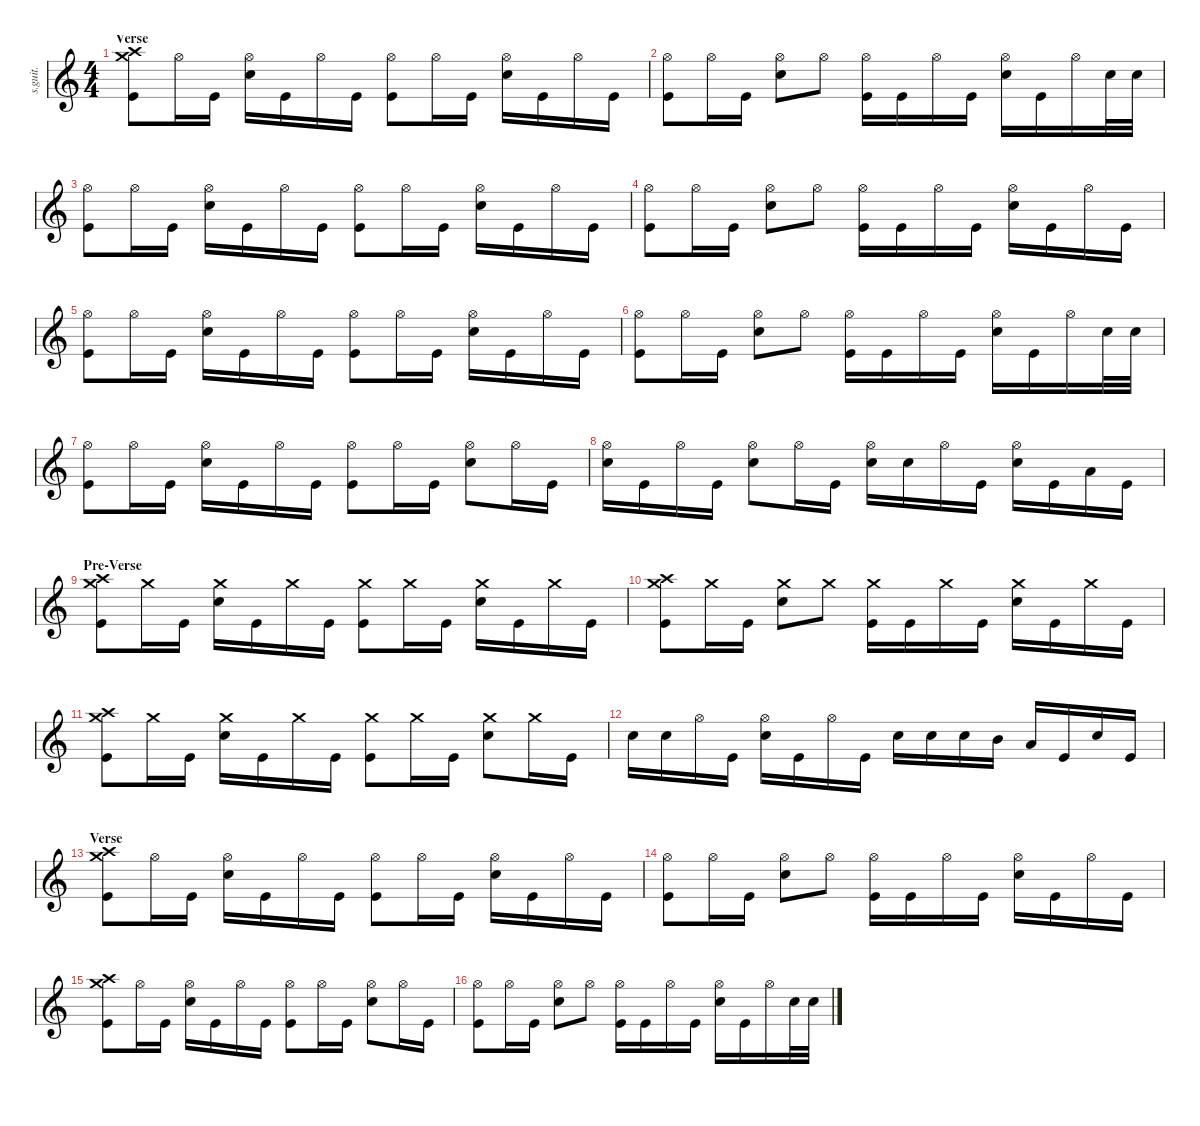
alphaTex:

\defaultSystemsLayout 4
\hideDynamics
\bracketExtendMode nobrackets
\track ("Abe Cunningham" "s.guit.") {instrument percussion}
\staff {score}
\articulation defaults
\ts (4 4)
\section ("" "Verse")
\tempo (93 hide)
\clef g2
\ks c
("Crash high (hit)" "Kick (hit)" "Crash medium (hit)").8{lyrics (0 "") lyrics (1 "") lyrics (2 "") lyrics (3 "") lyrics (4 "") dy fff} "Hi-Hat (open)".16{lyrics (0 "") lyrics (1 "") lyrics (2 "") lyrics (3 "") lyrics (4 "")} "Kick (hit)".16{lyrics (0 "") lyrics (1 "") lyrics (2 "") lyrics (3 "") lyrics (4 "")} ("Snare (hit) 2" "Hi-Hat (open)").16{lyrics (0 "") lyrics (1 "") lyrics (2 "") lyrics (3 "") lyrics (4 "")} "Kick (hit)".16{lyrics (0 "") lyrics (1 "") lyrics (2 "") lyrics (3 "") lyrics (4 "")} "Hi-Hat (open)".16{lyrics (0 "") lyrics (1 "") lyrics (2 "") lyrics (3 "") lyrics (4 "")} "Kick (hit)".16{lyrics (0 "") lyrics (1 "") lyrics (2 "") lyrics (3 "") lyrics (4 "")} ("Hi-Hat (open)" "Kick (hit)").8{lyrics (0 "") lyrics (1 "") lyrics (2 "") lyrics (3 "") lyrics (4 "")} "Hi-Hat (open)".16{lyrics (0 "") lyrics (1 "") lyrics (2 "") lyrics (3 "") lyrics (4 "")} "Kick (hit)".16{lyrics (0 "") lyrics (1 "") lyrics (2 "") lyrics (3 "") lyrics (4 "")} ("Hi-Hat (open)" "Snare (hit) 2").16{lyrics (0 "") lyrics (1 "") lyrics (2 "") lyrics (3 "") lyrics (4 "")} "Kick (hit)".16{lyrics (0 "") lyrics (1 "") lyrics (2 "") lyrics (3 "") lyrics (4 "")} "Hi-Hat (open)".16{lyrics (0 "") lyrics (1 "") lyrics (2 "") lyrics (3 "") lyrics (4 "")} "Kick (hit)".16{lyrics (0 "") lyrics (1 "") lyrics (2 "") lyrics (3 "") lyrics (4 "")} |
("Kick (hit)" "Hi-Hat (open)").8{lyrics (0 "") lyrics (1 "") lyrics (2 "") lyrics (3 "") lyrics (4 "")} "Hi-Hat (open)".16{lyrics (0 "") lyrics (1 "") lyrics (2 "") lyrics (3 "") lyrics (4 "")} "Kick (hit)".16{lyrics (0 "") lyrics (1 "") lyrics (2 "") lyrics (3 "") lyrics (4 "")} ("Snare (hit) 2" "Hi-Hat (open)").8{lyrics (0 "") lyrics (1 "") lyrics (2 "") lyrics (3 "") lyrics (4 "")} "Hi-Hat (open)".8{lyrics (0 "") lyrics (1 "") lyrics (2 "") lyrics (3 "") lyrics (4 "")} ("Hi-Hat (open)" "Kick (hit)").16{lyrics (0 "") lyrics (1 "") lyrics (2 "") lyrics (3 "") lyrics (4 "")} "Kick (hit)".16{lyrics (0 "") lyrics (1 "") lyrics (2 "") lyrics (3 "") lyrics (4 "")} "Hi-Hat (open)".16{lyrics (0 "") lyrics (1 "") lyrics (2 "") lyrics (3 "") lyrics (4 "")} "Kick (hit)".16{lyrics (0 "") lyrics (1 "") lyrics (2 "") lyrics (3 "") lyrics (4 "")} ("Hi-Hat (open)" "Snare (hit) 2").16{lyrics (0 "") lyrics (1 "") lyrics (2 "") lyrics (3 "") lyrics (4 "")} "Kick (hit)".16{lyrics (0 "") lyrics (1 "") lyrics (2 "") lyrics (3 "") lyrics (4 "")} "Hi-Hat (open)".16{lyrics (0 "") lyrics (1 "") lyrics (2 "") lyrics (3 "") lyrics (4 "")} "Snare (hit) 2".32{lyrics (0 "") lyrics (1 "") lyrics (2 "") lyrics (3 "") lyrics (4 "")} "Snare (hit) 2".32{lyrics (0 "") lyrics (1 "") lyrics (2 "") lyrics (3 "") lyrics (4 "")} |
("Kick (hit)" "Hi-Hat (open)").8{lyrics (0 "") lyrics (1 "") lyrics (2 "") lyrics (3 "") lyrics (4 "")} "Hi-Hat (open)".16{lyrics (0 "") lyrics (1 "") lyrics (2 "") lyrics (3 "") lyrics (4 "")} "Kick (hit)".16{lyrics (0 "") lyrics (1 "") lyrics (2 "") lyrics (3 "") lyrics (4 "")} ("Snare (hit) 2" "Hi-Hat (open)").16{lyrics (0 "") lyrics (1 "") lyrics (2 "") lyrics (3 "") lyrics (4 "")} "Kick (hit)".16{lyrics (0 "") lyrics (1 "") lyrics (2 "") lyrics (3 "") lyrics (4 "")} "Hi-Hat (open)".16{lyrics (0 "") lyrics (1 "") lyrics (2 "") lyrics (3 "") lyrics (4 "")} "Kick (hit)".16{lyrics (0 "") lyrics (1 "") lyrics (2 "") lyrics (3 "") lyrics (4 "")} ("Hi-Hat (open)" "Kick (hit)").8{lyrics (0 "") lyrics (1 "") lyrics (2 "") lyrics (3 "") lyrics (4 "")} "Hi-Hat (open)".16{lyrics (0 "") lyrics (1 "") lyrics (2 "") lyrics (3 "") lyrics (4 "")} "Kick (hit)".16{lyrics (0 "") lyrics (1 "") lyrics (2 "") lyrics (3 "") lyrics (4 "")} ("Hi-Hat (open)" "Snare (hit) 2").16{lyrics (0 "") lyrics (1 "") lyrics (2 "") lyrics (3 "") lyrics (4 "")} "Kick (hit)".16{lyrics (0 "") lyrics (1 "") lyrics (2 "") lyrics (3 "") lyrics (4 "")} "Hi-Hat (open)".16{lyrics (0 "") lyrics (1 "") lyrics (2 "") lyrics (3 "") lyrics (4 "")} "Kick (hit)".16{lyrics (0 "") lyrics (1 "") lyrics (2 "") lyrics (3 "") lyrics (4 "")} |
("Kick (hit)" "Hi-Hat (open)").8{lyrics (0 "") lyrics (1 "") lyrics (2 "") lyrics (3 "") lyrics (4 "")} "Hi-Hat (open)".16{lyrics (0 "") lyrics (1 "") lyrics (2 "") lyrics (3 "") lyrics (4 "")} "Kick (hit)".16{lyrics (0 "") lyrics (1 "") lyrics (2 "") lyrics (3 "") lyrics (4 "")} ("Snare (hit) 2" "Hi-Hat (open)").8{lyrics (0 "") lyrics (1 "") lyrics (2 "") lyrics (3 "") lyrics (4 "")} "Hi-Hat (open)".8{lyrics (0 "") lyrics (1 "") lyrics (2 "") lyrics (3 "") lyrics (4 "")} ("Hi-Hat (open)" "Kick (hit)").16{lyrics (0 "") lyrics (1 "") lyrics (2 "") lyrics (3 "") lyrics (4 "")} "Kick (hit)".16{lyrics (0 "") lyrics (1 "") lyrics (2 "") lyrics (3 "") lyrics (4 "")} "Hi-Hat (open)".16{lyrics (0 "") lyrics (1 "") lyrics (2 "") lyrics (3 "") lyrics (4 "")} "Kick (hit)".16{lyrics (0 "") lyrics (1 "") lyrics (2 "") lyrics (3 "") lyrics (4 "")} ("Hi-Hat (open)" "Snare (hit) 2").16{lyrics (0 "") lyrics (1 "") lyrics (2 "") lyrics (3 "") lyrics (4 "")} "Kick (hit)".16{lyrics (0 "") lyrics (1 "") lyrics (2 "") lyrics (3 "") lyrics (4 "")} "Hi-Hat (open)".16{lyrics (0 "") lyrics (1 "") lyrics (2 "") lyrics (3 "") lyrics (4 "")} "Kick (hit)".16{lyrics (0 "") lyrics (1 "") lyrics (2 "") lyrics (3 "") lyrics (4 "")} |
("Kick (hit)" "Hi-Hat (open)").8{lyrics (0 "") lyrics (1 "") lyrics (2 "") lyrics (3 "") lyrics (4 "")} "Hi-Hat (open)".16{lyrics (0 "") lyrics (1 "") lyrics (2 "") lyrics (3 "") lyrics (4 "")} "Kick (hit)".16{lyrics (0 "") lyrics (1 "") lyrics (2 "") lyrics (3 "") lyrics (4 "")} ("Snare (hit) 2" "Hi-Hat (open)").16{lyrics (0 "") lyrics (1 "") lyrics (2 "") lyrics (3 "") lyrics (4 "")} "Kick (hit)".16{lyrics (0 "") lyrics (1 "") lyrics (2 "") lyrics (3 "") lyrics (4 "")} "Hi-Hat (open)".16{lyrics (0 "") lyrics (1 "") lyrics (2 "") lyrics (3 "") lyrics (4 "")} "Kick (hit)".16{lyrics (0 "") lyrics (1 "") lyrics (2 "") lyrics (3 "") lyrics (4 "")} ("Hi-Hat (open)" "Kick (hit)").8{lyrics (0 "") lyrics (1 "") lyrics (2 "") lyrics (3 "") lyrics (4 "")} "Hi-Hat (open)".16{lyrics (0 "") lyrics (1 "") lyrics (2 "") lyrics (3 "") lyrics (4 "")} "Kick (hit)".16{lyrics (0 "") lyrics (1 "") lyrics (2 "") lyrics (3 "") lyrics (4 "")} ("Hi-Hat (open)" "Snare (hit) 2").16{lyrics (0 "") lyrics (1 "") lyrics (2 "") lyrics (3 "") lyrics (4 "")} "Kick (hit)".16{lyrics (0 "") lyrics (1 "") lyrics (2 "") lyrics (3 "") lyrics (4 "")} "Hi-Hat (open)".16{lyrics (0 "") lyrics (1 "") lyrics (2 "") lyrics (3 "") lyrics (4 "")} "Kick (hit)".16{lyrics (0 "") lyrics (1 "") lyrics (2 "") lyrics (3 "") lyrics (4 "")} |
("Kick (hit)" "Hi-Hat (open)").8{lyrics (0 "") lyrics (1 "") lyrics (2 "") lyrics (3 "") lyrics (4 "")} "Hi-Hat (open)".16{lyrics (0 "") lyrics (1 "") lyrics (2 "") lyrics (3 "") lyrics (4 "")} "Kick (hit)".16{lyrics (0 "") lyrics (1 "") lyrics (2 "") lyrics (3 "") lyrics (4 "")} ("Snare (hit) 2" "Hi-Hat (open)").8{lyrics (0 "") lyrics (1 "") lyrics (2 "") lyrics (3 "") lyrics (4 "")} "Hi-Hat (open)".8{lyrics (0 "") lyrics (1 "") lyrics (2 "") lyrics (3 "") lyrics (4 "")} ("Hi-Hat (open)" "Kick (hit)").16{lyrics (0 "") lyrics (1 "") lyrics (2 "") lyrics (3 "") lyrics (4 "")} "Kick (hit)".16{lyrics (0 "") lyrics (1 "") lyrics (2 "") lyrics (3 "") lyrics (4 "")} "Hi-Hat (open)".16{lyrics (0 "") lyrics (1 "") lyrics (2 "") lyrics (3 "") lyrics (4 "")} "Kick (hit)".16{lyrics (0 "") lyrics (1 "") lyrics (2 "") lyrics (3 "") lyrics (4 "")} ("Hi-Hat (open)" "Snare (hit) 2").16{lyrics (0 "") lyrics (1 "") lyrics (2 "") lyrics (3 "") lyrics (4 "")} "Kick (hit)".16{lyrics (0 "") lyrics (1 "") lyrics (2 "") lyrics (3 "") lyrics (4 "")} "Hi-Hat (open)".16{lyrics (0 "") lyrics (1 "") lyrics (2 "") lyrics (3 "") lyrics (4 "")} "Snare (hit) 2".32{lyrics (0 "") lyrics (1 "") lyrics (2 "") lyrics (3 "") lyrics (4 "")} "Snare (hit) 2".32{lyrics (0 "") lyrics (1 "") lyrics (2 "") lyrics (3 "") lyrics (4 "")} |
("Kick (hit)" "Hi-Hat (open)").8{lyrics (0 "") lyrics (1 "") lyrics (2 "") lyrics (3 "") lyrics (4 "")} "Hi-Hat (open)".16{lyrics (0 "") lyrics (1 "") lyrics (2 "") lyrics (3 "") lyrics (4 "")} "Kick (hit)".16{lyrics (0 "") lyrics (1 "") lyrics (2 "") lyrics (3 "") lyrics (4 "")} ("Snare (hit) 2" "Hi-Hat (open)").16{lyrics (0 "") lyrics (1 "") lyrics (2 "") lyrics (3 "") lyrics (4 "")} "Kick (hit)".16{lyrics (0 "") lyrics (1 "") lyrics (2 "") lyrics (3 "") lyrics (4 "")} "Hi-Hat (open)".16{lyrics (0 "") lyrics (1 "") lyrics (2 "") lyrics (3 "") lyrics (4 "")} "Kick (hit)".16{lyrics (0 "") lyrics (1 "") lyrics (2 "") lyrics (3 "") lyrics (4 "")} ("Hi-Hat (open)" "Kick (hit)").8{lyrics (0 "") lyrics (1 "") lyrics (2 "") lyrics (3 "") lyrics (4 "")} "Hi-Hat (open)".16{lyrics (0 "") lyrics (1 "") lyrics (2 "") lyrics (3 "") lyrics (4 "")} "Kick (hit)".16{lyrics (0 "") lyrics (1 "") lyrics (2 "") lyrics (3 "") lyrics (4 "")} ("Hi-Hat (open)" "Snare (hit) 2").8{lyrics (0 "") lyrics (1 "") lyrics (2 "") lyrics (3 "") lyrics (4 "")} "Hi-Hat (open)".16{lyrics (0 "") lyrics (1 "") lyrics (2 "") lyrics (3 "") lyrics (4 "")} "Kick (hit)".16{lyrics (0 "") lyrics (1 "") lyrics (2 "") lyrics (3 "") lyrics (4 "")} |
("Hi-Hat (open)" "Snare (hit) 2").16{lyrics (0 "") lyrics (1 "") lyrics (2 "") lyrics (3 "") lyrics (4 "")} "Kick (hit)".16{lyrics (0 "") lyrics (1 "") lyrics (2 "") lyrics (3 "") lyrics (4 "")} "Hi-Hat (open)".16{lyrics (0 "") lyrics (1 "") lyrics (2 "") lyrics (3 "") lyrics (4 "")} "Kick (hit)".16{lyrics (0 "") lyrics (1 "") lyrics (2 "") lyrics (3 "") lyrics (4 "")} ("Hi-Hat (open)" "Snare (hit) 2").8{lyrics (0 "") lyrics (1 "") lyrics (2 "") lyrics (3 "") lyrics (4 "")} "Hi-Hat (open)".16{lyrics (0 "") lyrics (1 "") lyrics (2 "") lyrics (3 "") lyrics (4 "")} "Kick (hit)".16{lyrics (0 "") lyrics (1 "") lyrics (2 "") lyrics (3 "") lyrics (4 "")} ("Hi-Hat (open)" "Snare (hit) 2").16{lyrics (0 "") lyrics (1 "") lyrics (2 "") lyrics (3 "") lyrics (4 "")} "Snare (hit) 2".16{lyrics (0 "") lyrics (1 "") lyrics (2 "") lyrics (3 "") lyrics (4 "")} "Hi-Hat (open)".16{lyrics (0 "") lyrics (1 "") lyrics (2 "") lyrics (3 "") lyrics (4 "")} "Kick (hit)".16{lyrics (0 "") lyrics (1 "") lyrics (2 "") lyrics (3 "") lyrics (4 "")} ("Snare (hit) 2" "Hi-Hat (open)").16{lyrics (0 "") lyrics (1 "") lyrics (2 "") lyrics (3 "") lyrics (4 "")} "Kick (hit)".16{lyrics (0 "") lyrics (1 "") lyrics (2 "") lyrics (3 "") lyrics (4 "")} "Low Tom (hit)".16{lyrics (0 "") lyrics (1 "") lyrics (2 "") lyrics (3 "") lyrics (4 "")} "Kick (hit)".16{lyrics (0 "") lyrics (1 "") lyrics (2 "") lyrics (3 "") lyrics (4 "")} |
\section ("" "Pre-Verse")
("Kick (hit)" "Crash high (hit)" "Crash medium (hit)").8{lyrics (0 "") lyrics (1 "") lyrics (2 "") lyrics (3 "") lyrics (4 "")} "Crash medium (hit)".16{lyrics (0 "") lyrics (1 "") lyrics (2 "") lyrics (3 "") lyrics (4 "")} "Kick (hit)".16{lyrics (0 "") lyrics (1 "") lyrics (2 "") lyrics (3 "") lyrics (4 "")} ("Snare (hit) 2" "Crash medium (hit)").16{lyrics (0 "") lyrics (1 "") lyrics (2 "") lyrics (3 "") lyrics (4 "")} "Kick (hit)".16{lyrics (0 "") lyrics (1 "") lyrics (2 "") lyrics (3 "") lyrics (4 "")} "Crash medium (hit)".16{lyrics (0 "") lyrics (1 "") lyrics (2 "") lyrics (3 "") lyrics (4 "")} "Kick (hit)".16{lyrics (0 "") lyrics (1 "") lyrics (2 "") lyrics (3 "") lyrics (4 "")} ("Kick (hit)" "Crash medium (hit)").8{lyrics (0 "") lyrics (1 "") lyrics (2 "") lyrics (3 "") lyrics (4 "")} "Crash medium (hit)".16{lyrics (0 "") lyrics (1 "") lyrics (2 "") lyrics (3 "") lyrics (4 "")} "Kick (hit)".16{lyrics (0 "") lyrics (1 "") lyrics (2 "") lyrics (3 "") lyrics (4 "")} ("Snare (hit) 2" "Crash medium (hit)").16{lyrics (0 "") lyrics (1 "") lyrics (2 "") lyrics (3 "") lyrics (4 "")} "Kick (hit)".16{lyrics (0 "") lyrics (1 "") lyrics (2 "") lyrics (3 "") lyrics (4 "")} "Crash medium (hit)".16{lyrics (0 "") lyrics (1 "") lyrics (2 "") lyrics (3 "") lyrics (4 "")} "Kick (hit)".16{lyrics (0 "") lyrics (1 "") lyrics (2 "") lyrics (3 "") lyrics (4 "")} |
("Kick (hit)" "Crash medium (hit)" "Crash high (hit)").8{lyrics (0 "") lyrics (1 "") lyrics (2 "") lyrics (3 "") lyrics (4 "")} "Crash medium (hit)".16{lyrics (0 "") lyrics (1 "") lyrics (2 "") lyrics (3 "") lyrics (4 "")} "Kick (hit)".16{lyrics (0 "") lyrics (1 "") lyrics (2 "") lyrics (3 "") lyrics (4 "")} ("Snare (hit) 2" "Crash medium (hit)").8{lyrics (0 "") lyrics (1 "") lyrics (2 "") lyrics (3 "") lyrics (4 "")} "Crash medium (hit)".8{lyrics (0 "") lyrics (1 "") lyrics (2 "") lyrics (3 "") lyrics (4 "")} ("Kick (hit)" "Crash medium (hit)").16{lyrics (0 "") lyrics (1 "") lyrics (2 "") lyrics (3 "") lyrics (4 "")} "Kick (hit)".16{lyrics (0 "") lyrics (1 "") lyrics (2 "") lyrics (3 "") lyrics (4 "")} "Crash medium (hit)".16{lyrics (0 "") lyrics (1 "") lyrics (2 "") lyrics (3 "") lyrics (4 "")} "Kick (hit)".16{lyrics (0 "") lyrics (1 "") lyrics (2 "") lyrics (3 "") lyrics (4 "")} ("Snare (hit) 2" "Crash medium (hit)").16{lyrics (0 "") lyrics (1 "") lyrics (2 "") lyrics (3 "") lyrics (4 "")} "Kick (hit)".16{lyrics (0 "") lyrics (1 "") lyrics (2 "") lyrics (3 "") lyrics (4 "")} "Crash medium (hit)".16{lyrics (0 "") lyrics (1 "") lyrics (2 "") lyrics (3 "") lyrics (4 "")} "Kick (hit)".16{lyrics (0 "") lyrics (1 "") lyrics (2 "") lyrics (3 "") lyrics (4 "")} |
("Kick (hit)" "Crash high (hit)" "Crash medium (hit)").8{lyrics (0 "") lyrics (1 "") lyrics (2 "") lyrics (3 "") lyrics (4 "")} "Crash medium (hit)".16{lyrics (0 "") lyrics (1 "") lyrics (2 "") lyrics (3 "") lyrics (4 "")} "Kick (hit)".16{lyrics (0 "") lyrics (1 "") lyrics (2 "") lyrics (3 "") lyrics (4 "")} ("Snare (hit) 2" "Crash medium (hit)").16{lyrics (0 "") lyrics (1 "") lyrics (2 "") lyrics (3 "") lyrics (4 "")} "Kick (hit)".16{lyrics (0 "") lyrics (1 "") lyrics (2 "") lyrics (3 "") lyrics (4 "")} "Crash medium (hit)".16{lyrics (0 "") lyrics (1 "") lyrics (2 "") lyrics (3 "") lyrics (4 "")} "Kick (hit)".16{lyrics (0 "") lyrics (1 "") lyrics (2 "") lyrics (3 "") lyrics (4 "")} ("Kick (hit)" "Crash medium (hit)").8{lyrics (0 "") lyrics (1 "") lyrics (2 "") lyrics (3 "") lyrics (4 "")} "Crash medium (hit)".16{lyrics (0 "") lyrics (1 "") lyrics (2 "") lyrics (3 "") lyrics (4 "")} "Kick (hit)".16{lyrics (0 "") lyrics (1 "") lyrics (2 "") lyrics (3 "") lyrics (4 "")} ("Snare (hit) 2" "Crash medium (hit)").8{lyrics (0 "") lyrics (1 "") lyrics (2 "") lyrics (3 "") lyrics (4 "")} "Crash medium (hit)".16{lyrics (0 "") lyrics (1 "") lyrics (2 "") lyrics (3 "") lyrics (4 "")} "Kick (hit)".16{lyrics (0 "") lyrics (1 "") lyrics (2 "") lyrics (3 "") lyrics (4 "")} |
"Snare (hit) 2".16{lyrics (0 "") lyrics (1 "") lyrics (2 "") lyrics (3 "") lyrics (4 "")} "Snare (hit) 2".16{lyrics (0 "") lyrics (1 "") lyrics (2 "") lyrics (3 "") lyrics (4 "")} "Hi-Hat (open)".16{lyrics (0 "") lyrics (1 "") lyrics (2 "") lyrics (3 "") lyrics (4 "")} "Kick (hit)".16{lyrics (0 "") lyrics (1 "") lyrics (2 "") lyrics (3 "") lyrics (4 "")} ("Hi-Hat (open)" "Snare (hit) 2").16{lyrics (0 "") lyrics (1 "") lyrics (2 "") lyrics (3 "") lyrics (4 "")} "Kick (hit)".16{lyrics (0 "") lyrics (1 "") lyrics (2 "") lyrics (3 "") lyrics (4 "")} "Hi-Hat (open)".16{lyrics (0 "") lyrics (1 "") lyrics (2 "") lyrics (3 "") lyrics (4 "")} "Kick (hit)".16{lyrics (0 "") lyrics (1 "") lyrics (2 "") lyrics (3 "") lyrics (4 "")} "Snare (hit) 2".16{lyrics (0 "") lyrics (1 "") lyrics (2 "") lyrics (3 "") lyrics (4 "")} "Snare (hit) 2".16{lyrics (0 "") lyrics (1 "") lyrics (2 "") lyrics (3 "") lyrics (4 "")} "Snare (hit) 2".16{lyrics (0 "") lyrics (1 "") lyrics (2 "") lyrics (3 "") lyrics (4 "")} "Mid Tom (hit)".16{lyrics (0 "") lyrics (1 "") lyrics (2 "") lyrics (3 "") lyrics (4 "")} "Low Tom (hit)".16{lyrics (0 "") lyrics (1 "") lyrics (2 "") lyrics (3 "") lyrics (4 "")} "Kick (hit)".16{lyrics (0 "") lyrics (1 "") lyrics (2 "") lyrics (3 "") lyrics (4 "")} "Snare (hit) 2".16{lyrics (0 "") lyrics (1 "") lyrics (2 "") lyrics (3 "") lyrics (4 "")} "Kick (hit)".16{lyrics (0 "") lyrics (1 "") lyrics (2 "") lyrics (3 "") lyrics (4 "")} |
\section ("" "Verse")
("Crash high (hit)" "Kick (hit)" "Crash medium (hit)").8{lyrics (0 "") lyrics (1 "") lyrics (2 "") lyrics (3 "") lyrics (4 "")} "Hi-Hat (open)".16{lyrics (0 "") lyrics (1 "") lyrics (2 "") lyrics (3 "") lyrics (4 "")} "Kick (hit)".16{lyrics (0 "") lyrics (1 "") lyrics (2 "") lyrics (3 "") lyrics (4 "")} ("Snare (hit) 2" "Hi-Hat (open)").16{lyrics (0 "") lyrics (1 "") lyrics (2 "") lyrics (3 "") lyrics (4 "")} "Kick (hit)".16{lyrics (0 "") lyrics (1 "") lyrics (2 "") lyrics (3 "") lyrics (4 "")} "Hi-Hat (open)".16{lyrics (0 "") lyrics (1 "") lyrics (2 "") lyrics (3 "") lyrics (4 "")} "Kick (hit)".16{lyrics (0 "") lyrics (1 "") lyrics (2 "") lyrics (3 "") lyrics (4 "")} ("Hi-Hat (open)" "Kick (hit)").8{lyrics (0 "") lyrics (1 "") lyrics (2 "") lyrics (3 "") lyrics (4 "")} "Hi-Hat (open)".16{lyrics (0 "") lyrics (1 "") lyrics (2 "") lyrics (3 "") lyrics (4 "")} "Kick (hit)".16{lyrics (0 "") lyrics (1 "") lyrics (2 "") lyrics (3 "") lyrics (4 "")} ("Hi-Hat (open)" "Snare (hit) 2").16{lyrics (0 "") lyrics (1 "") lyrics (2 "") lyrics (3 "") lyrics (4 "")} "Kick (hit)".16{lyrics (0 "") lyrics (1 "") lyrics (2 "") lyrics (3 "") lyrics (4 "")} "Hi-Hat (open)".16{lyrics (0 "") lyrics (1 "") lyrics (2 "") lyrics (3 "") lyrics (4 "")} "Kick (hit)".16{lyrics (0 "") lyrics (1 "") lyrics (2 "") lyrics (3 "") lyrics (4 "")} |
("Kick (hit)" "Hi-Hat (open)").8{lyrics (0 "") lyrics (1 "") lyrics (2 "") lyrics (3 "") lyrics (4 "")} "Hi-Hat (open)".16{lyrics (0 "") lyrics (1 "") lyrics (2 "") lyrics (3 "") lyrics (4 "")} "Kick (hit)".16{lyrics (0 "") lyrics (1 "") lyrics (2 "") lyrics (3 "") lyrics (4 "")} ("Snare (hit) 2" "Hi-Hat (open)").8{lyrics (0 "") lyrics (1 "") lyrics (2 "") lyrics (3 "") lyrics (4 "")} "Hi-Hat (open)".8{lyrics (0 "") lyrics (1 "") lyrics (2 "") lyrics (3 "") lyrics (4 "")} ("Hi-Hat (open)" "Kick (hit)").16{lyrics (0 "") lyrics (1 "") lyrics (2 "") lyrics (3 "") lyrics (4 "")} "Kick (hit)".16{lyrics (0 "") lyrics (1 "") lyrics (2 "") lyrics (3 "") lyrics (4 "")} "Hi-Hat (open)".16{lyrics (0 "") lyrics (1 "") lyrics (2 "") lyrics (3 "") lyrics (4 "")} "Kick (hit)".16{lyrics (0 "") lyrics (1 "") lyrics (2 "") lyrics (3 "") lyrics (4 "")} ("Hi-Hat (open)" "Snare (hit) 2").16{lyrics (0 "") lyrics (1 "") lyrics (2 "") lyrics (3 "") lyrics (4 "")} "Kick (hit)".16{lyrics (0 "") lyrics (1 "") lyrics (2 "") lyrics (3 "") lyrics (4 "")} "Hi-Hat (open)".16{lyrics (0 "") lyrics (1 "") lyrics (2 "") lyrics (3 "") lyrics (4 "")} "Kick (hit)".16{lyrics (0 "") lyrics (1 "") lyrics (2 "") lyrics (3 "") lyrics (4 "")} |
("Crash high (hit)" "Kick (hit)" "Crash medium (hit)").8{lyrics (0 "") lyrics (1 "") lyrics (2 "") lyrics (3 "") lyrics (4 "")} "Hi-Hat (open)".16{lyrics (0 "") lyrics (1 "") lyrics (2 "") lyrics (3 "") lyrics (4 "")} "Kick (hit)".16{lyrics (0 "") lyrics (1 "") lyrics (2 "") lyrics (3 "") lyrics (4 "")} ("Snare (hit) 2" "Hi-Hat (open)").16{lyrics (0 "") lyrics (1 "") lyrics (2 "") lyrics (3 "") lyrics (4 "")} "Kick (hit)".16{lyrics (0 "") lyrics (1 "") lyrics (2 "") lyrics (3 "") lyrics (4 "")} "Hi-Hat (open)".16{lyrics (0 "") lyrics (1 "") lyrics (2 "") lyrics (3 "") lyrics (4 "")} "Kick (hit)".16{lyrics (0 "") lyrics (1 "") lyrics (2 "") lyrics (3 "") lyrics (4 "")} ("Hi-Hat (open)" "Kick (hit)").8{lyrics (0 "") lyrics (1 "") lyrics (2 "") lyrics (3 "") lyrics (4 "")} "Hi-Hat (open)".16{lyrics (0 "") lyrics (1 "") lyrics (2 "") lyrics (3 "") lyrics (4 "")} "Kick (hit)".16{lyrics (0 "") lyrics (1 "") lyrics (2 "") lyrics (3 "") lyrics (4 "")} ("Hi-Hat (open)" "Snare (hit) 2").8{lyrics (0 "") lyrics (1 "") lyrics (2 "") lyrics (3 "") lyrics (4 "")} "Hi-Hat (open)".16{lyrics (0 "") lyrics (1 "") lyrics (2 "") lyrics (3 "") lyrics (4 "")} "Kick (hit)".16{lyrics (0 "") lyrics (1 "") lyrics (2 "") lyrics (3 "") lyrics (4 "")} |
("Kick (hit)" "Hi-Hat (open)").8{lyrics (0 "") lyrics (1 "") lyrics (2 "") lyrics (3 "") lyrics (4 "")} "Hi-Hat (open)".16{lyrics (0 "") lyrics (1 "") lyrics (2 "") lyrics (3 "") lyrics (4 "")} "Kick (hit)".16{lyrics (0 "") lyrics (1 "") lyrics (2 "") lyrics (3 "") lyrics (4 "")} ("Snare (hit) 2" "Hi-Hat (open)").8{lyrics (0 "") lyrics (1 "") lyrics (2 "") lyrics (3 "") lyrics (4 "")} "Hi-Hat (open)".8{lyrics (0 "") lyrics (1 "") lyrics (2 "") lyrics (3 "") lyrics (4 "")} ("Hi-Hat (open)" "Kick (hit)").16{lyrics (0 "") lyrics (1 "") lyrics (2 "") lyrics (3 "") lyrics (4 "")} "Kick (hit)".16{lyrics (0 "") lyrics (1 "") lyrics (2 "") lyrics (3 "") lyrics (4 "")} "Hi-Hat (open)".16{lyrics (0 "") lyrics (1 "") lyrics (2 "") lyrics (3 "") lyrics (4 "")} "Kick (hit)".16{lyrics (0 "") lyrics (1 "") lyrics (2 "") lyrics (3 "") lyrics (4 "")} ("Hi-Hat (open)" "Snare (hit) 2").16{lyrics (0 "") lyrics (1 "") lyrics (2 "") lyrics (3 "") lyrics (4 "")} "Kick (hit)".16{lyrics (0 "") lyrics (1 "") lyrics (2 "") lyrics (3 "") lyrics (4 "")} "Hi-Hat (open)".16{lyrics (0 "") lyrics (1 "") lyrics (2 "") lyrics (3 "") lyrics (4 "")} "Snare (hit) 2".32{lyrics (0 "") lyrics (1 "") lyrics (2 "") lyrics (3 "") lyrics (4 "")} "Snare (hit) 2".32{lyrics (0 "") lyrics (1 "") lyrics (2 "") lyrics (3 "") lyrics (4 "")}
